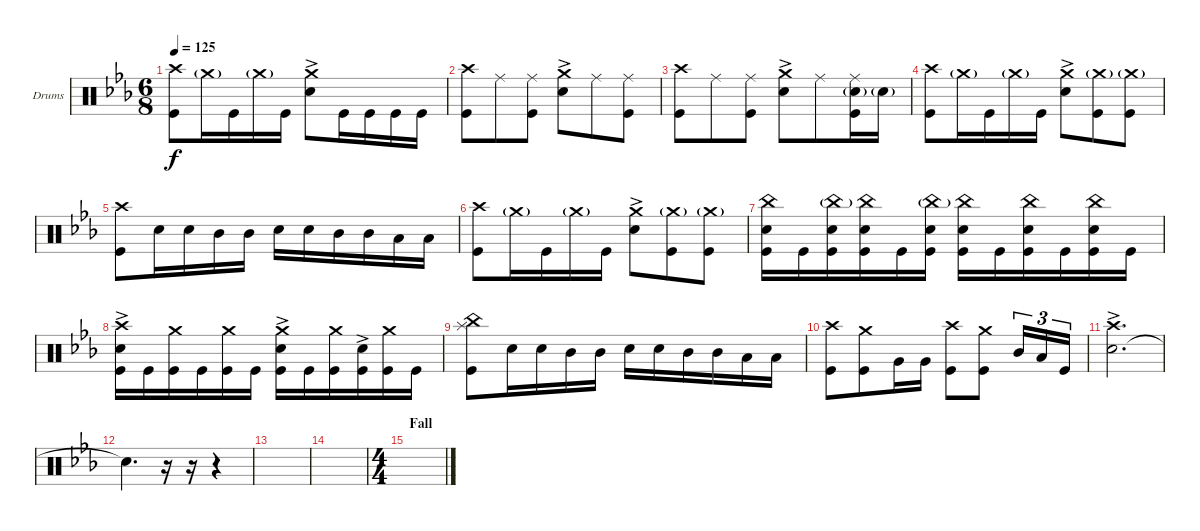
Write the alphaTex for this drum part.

\bracketExtendMode groupsimilarinstruments
\firstSystemTrackNameOrientation horizontal
\otherSystemsTrackNameOrientation horizontal
\track ("Drumkit" "Drums") {instrument percussion}
\staff {score}
\articulation defaults
\ts (6 8)
\tempo 125
\clef neutral
\ks cminor
("Kick (hit)" "Crash high (hit)").8{dy f} "Crash medium (hit)"{g}.16 "Kick (hit)".16 "Crash medium (hit)"{g}.16 "Kick (hit)".16 ("Snare (hit) 2"{ac} "Crash medium (hit)").8 "Kick (hit)".16 "Kick (hit)".16 "Kick (hit)".16 "Kick (hit)".16 |
("Crash high (hit)" "Kick (hit)").8 "Ride (middle)".8 ("Kick (hit)" "Ride (middle)").8 ("Snare (hit) 2"{ac} "Crash medium (hit)").8 "Ride (middle)".8 ("Kick (hit)" "Ride (middle)").8 |
("Crash high (hit)" "Kick (hit)").8 "Ride (middle)".8 ("Kick (hit)" "Ride (middle)").8 ("Snare (hit) 2"{ac} "Crash medium (hit)").8 "Ride (middle)".8 ("Kick (hit)" "Ride (middle)" "Snare (hit) 2"{g}).16 "Snare (hit) 2"{g}.16 |
("Kick (hit)" "Crash high (hit)").8 "Crash medium (hit)"{g}.16 "Kick (hit)".16 "Crash medium (hit)"{g}.16 "Kick (hit)".16 ("Snare (hit) 2"{ac} "Crash medium (hit)").8 ("Kick (hit)" "Crash medium (hit)"{g}).8 ("Kick (hit)" "Crash medium (hit)"{g}).8 |
("Kick (hit)" "Crash high (hit)").8 "Snare (hit) 2".16 "Snare (hit) 2".16 "Mid Tom (hit)".16 "Mid Tom (hit)".16 "Snare (hit) 2".16 "Snare (hit) 2".16 "Mid Tom (hit)".16 "Mid Tom (hit)".16 "Low Tom (hit)".16 "Low Tom (hit)".16 |
("Kick (hit)" "Crash high (hit)").8 "Crash medium (hit)"{g}.16 "Kick (hit)".16 "Crash medium (hit)"{g}.16 "Kick (hit)".16 ("Snare (hit) 2"{ac} "Crash medium (hit)").8 ("Kick (hit)" "Crash medium (hit)"{g}).8 ("Kick (hit)" "Crash medium (hit)"{g}).8 |
("Kick (hit)" "Snare (hit) 2" "China (hit)").16 "Kick (hit)".16 ("Kick (hit)" "Snare (hit) 2" "China (hit)"{g}).16 ("Kick (hit)" "Snare (hit) 2" "China (hit)").16 "Kick (hit)".16 ("Kick (hit)" "Snare (hit) 2" "China (hit)"{g}).16 ("Kick (hit)" "Snare (hit) 2" "China (hit)").16 "Kick (hit)".16 ("Kick (hit)" "Snare (hit) 2" "China (hit)").16 "Kick (hit)".16 ("Kick (hit)" "Snare (hit) 2" "China (hit)").16 "Kick (hit)".16 |
("Kick (hit)" "Snare (hit) 2"{ac} "Crash high (hit)").16 "Kick (hit)".16 ("Kick (hit)" "Crash medium (hit)").16 "Kick (hit)".16 ("Kick (hit)" "Crash medium (hit)").16 "Kick (hit)".16 ("Kick (hit)" "Snare (hit) 2"{ac} "Crash medium (hit)").16 "Kick (hit)".16 ("Kick (hit)" "Crash medium (hit)").16 ("Kick (hit)" "Snare (hit) 2"{ac}).16 ("Kick (hit)" "Crash medium (hit)").16 "Kick (hit)".16 |
("Kick (hit)" "Splash (hit)" "China (hit)").8 "Snare (hit) 2".16 "Snare (hit) 2".16 "Mid Tom (hit)".16 "Mid Tom (hit)".16 "Snare (hit) 2".16 "Snare (hit) 2".16 "Mid Tom (hit)".16 "Mid Tom (hit)".16 "Low Tom (hit)".16 "Low Tom (hit)".16 |
("Kick (hit)" "Crash high (hit)").8 ("Kick (hit)" "Crash medium (hit)").8 "Very Low Tom (hit)".16 "Very Low Tom (hit)".16 ("Kick (hit)" "Crash high (hit)").8 ("Kick (hit)" "Crash medium (hit)").8 "Mid Tom (hit)".16{tu (3 2)} "Low Tom (hit)".16{tu (3 2)} "Kick (hit)".16{tu (3 2)} |
("Snare (hit) 2"{ac} "Crash high (hit)").2{d} |
"Snare (hit) 2"{t}.4{d} r.16 r.16 r.4 |
|
|
\ts (4 4)
\section ("" "Fall")
